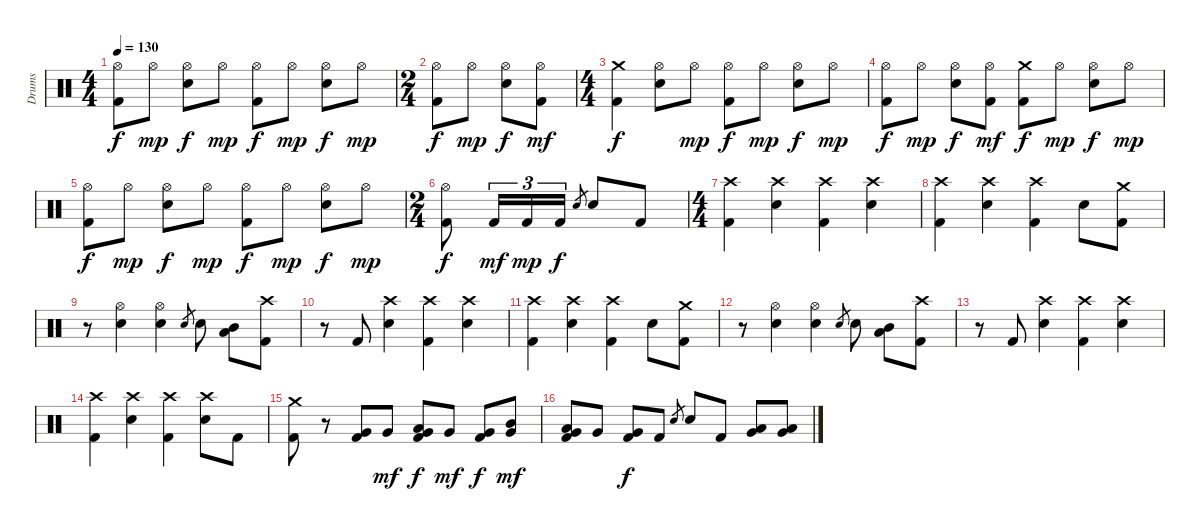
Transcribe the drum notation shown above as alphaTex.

\track ("Drums" "Drums") {instrument percussion}
\staff {score}
\articulation defaults
\ts (4 4)
\tempo 130
\clef neutral
\ks c
("Hi-Hat (open)" "Kick (hit) 2").8{dy f} "Hi-Hat (open)".8{dy mp} ("Hi-Hat (open)" "Electric Snare (hit)").8{dy f} "Hi-Hat (open)".8{dy mp} ("Hi-Hat (open)" "Kick (hit) 2").8{dy f} "Hi-Hat (open)".8{dy mp} ("Hi-Hat (open)" "Electric Snare (hit)").8{dy f} "Hi-Hat (open)".8{dy mp} |
\ts (2 4)
("Hi-Hat (open)" "Kick (hit) 2").8{dy f} "Hi-Hat (open)".8{dy mp} ("Hi-Hat (open)" "Electric Snare (hit)").8{dy f} ("Hi-Hat (open)" "Kick (hit) 2").8{dy mf} |
\ts (4 4)
("Crash medium (hit)" "Kick (hit) 2").4{dy f} ("Hi-Hat (open)" "Electric Snare (hit)").8 "Hi-Hat (open)".8{dy mp} ("Hi-Hat (open)" "Kick (hit) 2").8{dy f} "Hi-Hat (open)".8{dy mp} ("Hi-Hat (open)" "Electric Snare (hit)").8{dy f} "Hi-Hat (open)".8{dy mp} |
("Hi-Hat (open)" "Kick (hit) 2").8{dy f} "Hi-Hat (open)".8{dy mp} ("Hi-Hat (open)" "Electric Snare (hit)").8{dy f} ("Hi-Hat (open)" "Kick (hit) 2").8{dy mf} ("Crash medium (hit)" "Kick (hit) 2").8{dy f} "Hi-Hat (open)".8{dy mp} ("Hi-Hat (open)" "Electric Snare (hit)").8{dy f} "Hi-Hat (open)".8{dy mp} |
("Hi-Hat (open)" "Kick (hit) 2").8{dy f} "Hi-Hat (open)".8{dy mp} ("Hi-Hat (open)" "Electric Snare (hit)").8{dy f} "Hi-Hat (open)".8{dy mp} ("Hi-Hat (open)" "Kick (hit) 2").8{dy f} "Hi-Hat (open)".8{dy mp} ("Hi-Hat (open)" "Electric Snare (hit)").8{dy f} "Hi-Hat (open)".8{dy mp} |
\ts (2 4)
("Hi-Hat (open)" "Kick (hit) 2").8{dy f} "Kick (hit) 2".16{tu (3 2) dy mf} "Kick (hit) 2".16{tu (3 2) dy mp} "Kick (hit) 2".16{tu (3 2) dy f} "Electric Snare (hit)".8{gr} "Electric Snare (hit)".8 "Kick (hit) 2".8 |
\ts (4 4)
("Crash high (hit)" "Kick (hit) 2").4 ("Crash high (hit)" "Electric Snare (hit)").4 ("Crash high (hit)" "Kick (hit) 2").4 ("Crash high (hit)" "Electric Snare (hit)").4 |
("Crash high (hit)" "Kick (hit) 2").4 ("Crash high (hit)" "Electric Snare (hit)").4 ("Crash high (hit)" "Kick (hit) 2").4 "Electric Snare (hit)".8 ("Crash medium (hit)" "Kick (hit) 2").8 |
r.8 ("Hi-Hat (open)" "Electric Snare (hit)").4 ("Hi-Hat (open)" "Electric Snare (hit)").4 "Electric Snare (hit)".8{gr} "Electric Snare (hit)".8 ("Mid Tom (hit)" "Low Tom (hit)").8 ("Crash high (hit)" "Kick (hit) 2").8 |
r.8 "Kick (hit) 2".8 ("Crash high (hit)" "Electric Snare (hit)").4 ("Crash high (hit)" "Kick (hit) 2").4 ("Crash high (hit)" "Electric Snare (hit)").4 |
("Crash high (hit)" "Kick (hit) 2").4 ("Crash high (hit)" "Electric Snare (hit)").4 ("Crash high (hit)" "Kick (hit) 2").4 "Electric Snare (hit)".8 ("Crash medium (hit)" "Kick (hit) 2").8 |
r.8 ("Hi-Hat (open)" "Electric Snare (hit)").4 ("Hi-Hat (open)" "Electric Snare (hit)").4 "Electric Snare (hit)".8{gr} "Electric Snare (hit)".8 ("Mid Tom (hit)" "Low Tom (hit)").8 ("Crash high (hit)" "Kick (hit) 2").8 |
r.8 "Kick (hit) 2".8 ("Crash high (hit)" "Electric Snare (hit)").4 ("Crash high (hit)" "Kick (hit) 2").4 ("Crash high (hit)" "Electric Snare (hit)").4 |
("Crash high (hit)" "Kick (hit) 2").4 ("Crash high (hit)" "Electric Snare (hit)").4 ("Crash high (hit)" "Kick (hit) 2").4 ("Crash high (hit)" "Electric Snare (hit)").8 "Kick (hit) 2".8 |
("Crash medium (hit)" "Kick (hit) 2").8 r.8 ("Very Low Tom (hit)" "Kick (hit) 2").8 "Very Low Tom (hit)".8{dy mf} ("Low Tom (hit)" "Very Low Tom (hit)" "Kick (hit) 2").8{dy f} "Very Low Tom (hit)".8{dy mf} ("Very Low Tom (hit)" "Kick (hit) 2").8{dy f} ("Mid Tom (hit)" "Very Low Tom (hit)").8{dy mf} |
("Low Tom (hit)" "Very Low Tom (hit)" "Kick (hit) 2").8 "Very Low Tom (hit)".8 ("Very Low Tom (hit)" "Kick (hit) 2").8{dy f} "Kick (hit) 2".8 "Electric Snare (hit)".8{gr} "Electric Snare (hit)".8 "Kick (hit) 2".8 ("Low Tom (hit)" "Very Low Tom (hit)").8 ("Low Tom (hit)" "Very Low Tom (hit)").8
